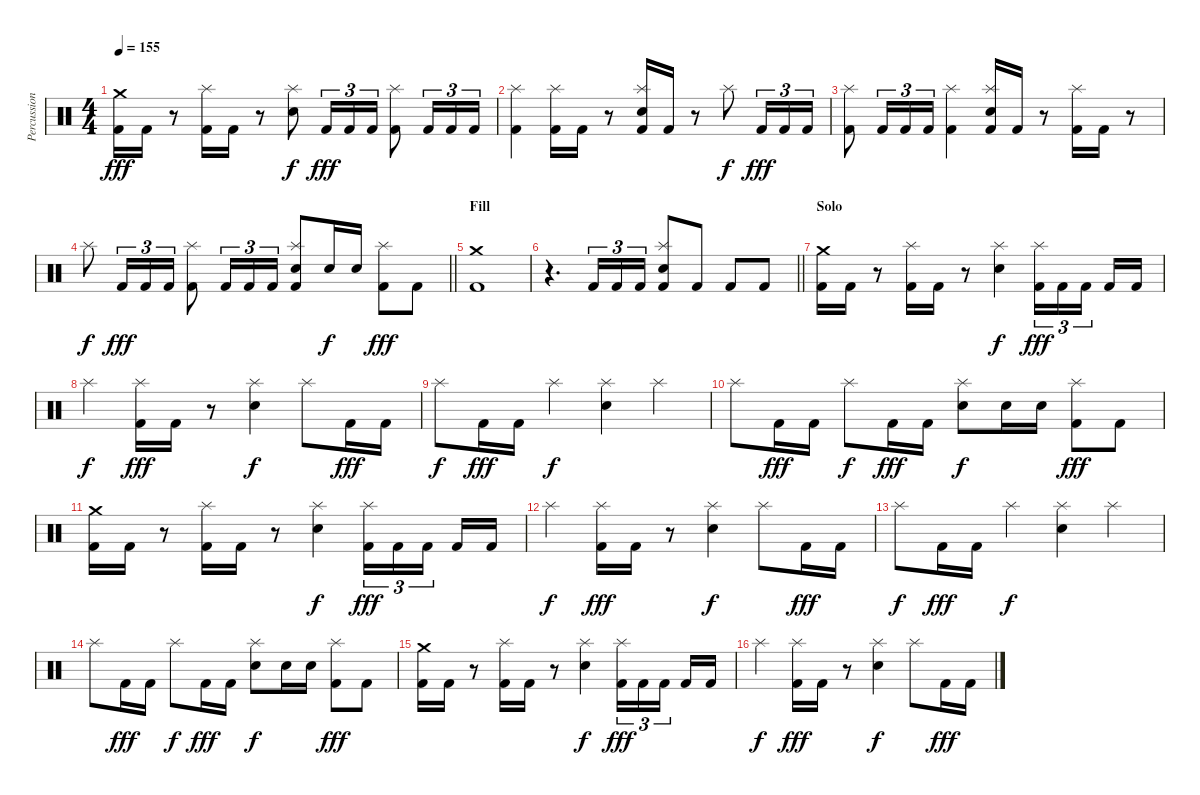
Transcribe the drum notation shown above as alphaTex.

\track ("Percussion" "Percussion") {instrument percussion}
\staff {score}
\articulation defaults
\ts (4 4)
\tempo 155
\clef neutral
\ks c
("Crash medium (hit)" "Kick (hit) 2").16{dy fff} "Kick (hit) 2".16 r.8 ("Splash (hit)" "Kick (hit) 2").16 "Kick (hit) 2".16 r.8 ("Splash (hit)" "Electric Snare (hit)").8{dy f} "Kick (hit) 2".16{tu (3 2) dy fff} "Kick (hit) 2".16{tu (3 2)} "Kick (hit) 2".16{tu (3 2)} ("Splash (hit)" "Kick (hit) 2").8 "Kick (hit) 2".16{tu (3 2)} "Kick (hit) 2".16{tu (3 2)} "Kick (hit) 2".16{tu (3 2)} |
("Splash (hit)" "Kick (hit) 2").4 ("Splash (hit)" "Kick (hit) 2").16 "Kick (hit) 2".16 r.8 ("Splash (hit)" "Electric Snare (hit)" "Kick (hit) 2").16 "Kick (hit) 2".16 r.8 "Splash (hit)".8{dy f} "Kick (hit) 2".16{tu (3 2) dy fff} "Kick (hit) 2".16{tu (3 2)} "Kick (hit) 2".16{tu (3 2)} |
("Splash (hit)" "Kick (hit) 2").8 "Kick (hit) 2".16{tu (3 2)} "Kick (hit) 2".16{tu (3 2)} "Kick (hit) 2".16{tu (3 2)} ("Splash (hit)" "Kick (hit) 2").4 ("Splash (hit)" "Electric Snare (hit)" "Kick (hit) 2").16 "Kick (hit) 2".16 r.8 ("Splash (hit)" "Kick (hit) 2").16 "Kick (hit) 2".16 r.8 |
\barLineRight lightlight "Splash (hit)".8{dy f} "Kick (hit) 2".16{tu (3 2) dy fff} "Kick (hit) 2".16{tu (3 2)} "Kick (hit) 2".16{tu (3 2)}
("Splash (hit)" "Kick (hit) 2").8 "Kick (hit) 2".16{tu (3 2)} "Kick (hit) 2".16{tu (3 2)} "Kick (hit) 2".16{tu (3 2)} ("Splash (hit)" "Electric Snare (hit)" "Kick (hit) 2").8 "Electric Snare (hit)".16{dy f} "Electric Snare (hit)".16 ("Splash (hit)" "Kick (hit) 2").8{dy fff} "Kick (hit) 2".8 |
\section ("" "Fill")
("Crash medium (hit)" "Kick (hit) 2").1 |
\barLineRight lightlight
r.4{d} "Kick (hit) 2".16{tu (3 2)} "Kick (hit) 2".16{tu (3 2)} "Kick (hit) 2".16{tu (3 2)} ("Splash (hit)" "Electric Snare (hit)" "Kick (hit) 2").8 "Kick (hit) 2".8 "Kick (hit) 2".8 "Kick (hit) 2".8 |
\section ("" "Solo")
("Crash medium (hit)" "Kick (hit) 2").16 "Kick (hit) 2".16 r.8 ("Splash (hit)" "Kick (hit) 2").16 "Kick (hit) 2".16 r.8 ("Splash (hit)" "Electric Snare (hit)").4{dy f} ("Splash (hit)" "Kick (hit) 2").16{tu (3 2) dy fff} "Kick (hit) 2".16{tu (3 2)} "Kick (hit) 2".16{tu (3 2) beam splitsecondary} "Kick (hit) 2".16 "Kick (hit) 2".16 |
"Splash (hit)".4{dy f} ("Splash (hit)" "Kick (hit) 2").16{dy fff} "Kick (hit) 2".16 r.8 ("Splash (hit)" "Electric Snare (hit)").4{dy f} "Splash (hit)".8 "Kick (hit) 2".16{dy fff} "Kick (hit) 2".16 |
"Splash (hit)".8{dy f} "Kick (hit) 2".16{dy fff} "Kick (hit) 2".16 "Splash (hit)".4{dy f} ("Splash (hit)" "Electric Snare (hit)").4 "Splash (hit)".4 |
"Splash (hit)".8 "Kick (hit) 2".16{dy fff} "Kick (hit) 2".16 "Splash (hit)".8{dy f} "Kick (hit) 2".16{dy fff} "Kick (hit) 2".16 ("Splash (hit)" "Electric Snare (hit)").8{dy f} "Electric Snare (hit)".16 "Electric Snare (hit)".16 ("Splash (hit)" "Kick (hit) 2").8{dy fff} "Kick (hit) 2".8 |
("Crash medium (hit)" "Kick (hit) 2").16 "Kick (hit) 2".16 r.8 ("Splash (hit)" "Kick (hit) 2").16 "Kick (hit) 2".16 r.8 ("Splash (hit)" "Electric Snare (hit)").4{dy f} ("Splash (hit)" "Kick (hit) 2").16{tu (3 2) dy fff} "Kick (hit) 2".16{tu (3 2)} "Kick (hit) 2".16{tu (3 2) beam splitsecondary} "Kick (hit) 2".16 "Kick (hit) 2".16 |
"Splash (hit)".4{dy f} ("Splash (hit)" "Kick (hit) 2").16{dy fff} "Kick (hit) 2".16 r.8 ("Splash (hit)" "Electric Snare (hit)").4{dy f} "Splash (hit)".8 "Kick (hit) 2".16{dy fff} "Kick (hit) 2".16 |
"Splash (hit)".8{dy f} "Kick (hit) 2".16{dy fff} "Kick (hit) 2".16 "Splash (hit)".4{dy f} ("Splash (hit)" "Electric Snare (hit)").4 "Splash (hit)".4 |
"Splash (hit)".8 "Kick (hit) 2".16{dy fff} "Kick (hit) 2".16 "Splash (hit)".8{dy f} "Kick (hit) 2".16{dy fff} "Kick (hit) 2".16 ("Splash (hit)" "Electric Snare (hit)").8{dy f} "Electric Snare (hit)".16 "Electric Snare (hit)".16 ("Splash (hit)" "Kick (hit) 2").8{dy fff} "Kick (hit) 2".8 |
("Crash medium (hit)" "Kick (hit) 2").16 "Kick (hit) 2".16 r.8 ("Splash (hit)" "Kick (hit) 2").16 "Kick (hit) 2".16 r.8 ("Splash (hit)" "Electric Snare (hit)").4{dy f} ("Splash (hit)" "Kick (hit) 2").16{tu (3 2) dy fff} "Kick (hit) 2".16{tu (3 2)} "Kick (hit) 2".16{tu (3 2) beam splitsecondary} "Kick (hit) 2".16 "Kick (hit) 2".16 |
"Splash (hit)".4{dy f} ("Splash (hit)" "Kick (hit) 2").16{dy fff} "Kick (hit) 2".16 r.8 ("Splash (hit)" "Electric Snare (hit)").4{dy f} "Splash (hit)".8 "Kick (hit) 2".16{dy fff} "Kick (hit) 2".16
